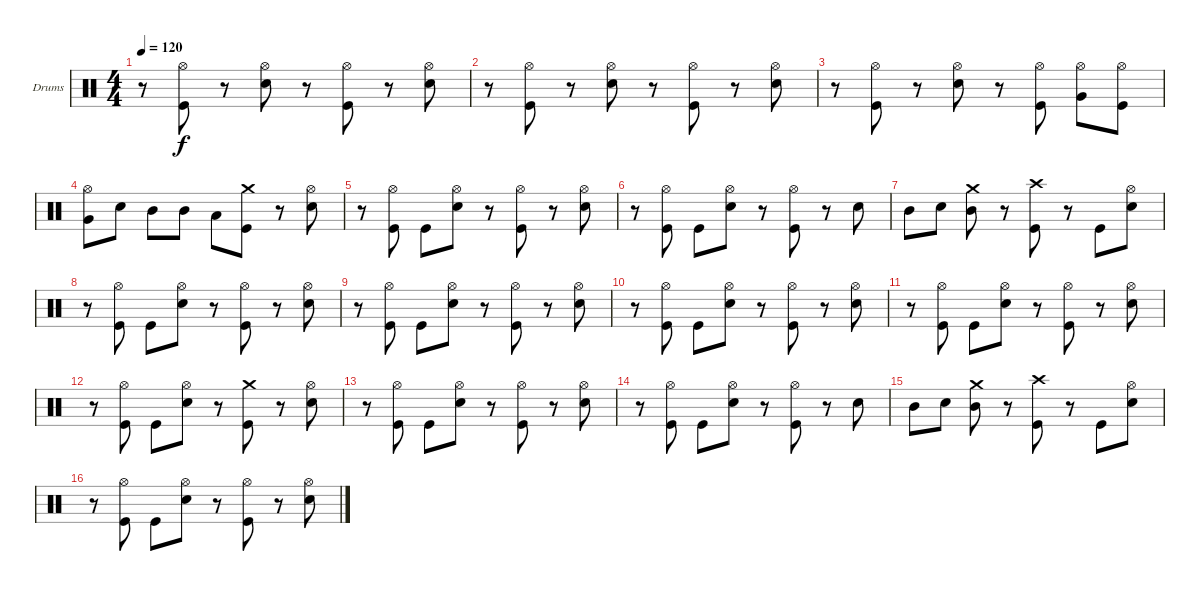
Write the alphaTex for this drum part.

\defaultSystemsLayout 4
\bracketExtendMode groupsimilarinstruments
\firstSystemTrackNameOrientation horizontal
\otherSystemsTrackNameOrientation horizontal
\track ("Drumkit" "Drums") {instrument percussion}
\staff {score}
\articulation defaults
\ts (4 4)
\tempo 120
\clef neutral
\ks c
r.8{dy f} ("Kick (hit)" "Hi-Hat (open)").8 r.8 ("Snare (hit) 2" "Hi-Hat (open)").8 r.8 ("Kick (hit)" "Hi-Hat (open)").8 r.8 ("Snare (hit) 2" "Hi-Hat (open)").8 |
r.8 ("Kick (hit)" "Hi-Hat (open)").8 r.8 ("Snare (hit) 2" "Hi-Hat (open)").8 r.8 ("Kick (hit)" "Hi-Hat (open)").8 r.8 ("Snare (hit) 2" "Hi-Hat (open)").8 |
r.8 ("Kick (hit)" "Hi-Hat (open)").8 r.8 ("Snare (hit) 2" "Hi-Hat (open)").8 r.8 ("Kick (hit)" "Hi-Hat (open)").8 ("Very Low Tom (hit)" "Hi-Hat (open)").8 ("Kick (hit)" "Hi-Hat (open)").8 |
("Very Low Tom (hit)" "Hi-Hat (open)").8 "Snare (hit) 2".8 "Mid Tom (hit)".8 "Mid Tom (hit)".8 "Low Tom (hit)".8 ("Kick (hit)" "Crash medium (hit)").8 r.8 ("Snare (hit) 2" "Hi-Hat (open)").8 |
r.8 ("Kick (hit)" "Hi-Hat (open)").8 "Kick (hit)".8 ("Snare (hit) 2" "Hi-Hat (open)").8 r.8 ("Kick (hit)" "Hi-Hat (open)").8 r.8 ("Snare (hit) 2" "Hi-Hat (open)").8 |
r.8 ("Kick (hit)" "Hi-Hat (open)").8 "Kick (hit)".8 ("Snare (hit) 2" "Hi-Hat (open)").8 r.8 ("Kick (hit)" "Hi-Hat (open)").8 r.8 "Snare (hit) 2".8 |
"Mid Tom (hit)".8 "Snare (hit) 2".8 ("Mid Tom (hit)" "Crash medium (hit)").8 r.8 ("Kick (hit)" "Crash high (hit)").8 r.8 "Kick (hit)".8 ("Snare (hit) 2" "Hi-Hat (open)").8 |
r.8 ("Kick (hit)" "Hi-Hat (open)").8 "Kick (hit)".8 ("Snare (hit) 2" "Hi-Hat (open)").8 r.8 ("Kick (hit)" "Hi-Hat (open)").8 r.8 ("Snare (hit) 2" "Hi-Hat (open)").8 |
r.8 ("Kick (hit)" "Hi-Hat (open)").8 "Kick (hit)".8 ("Snare (hit) 2" "Hi-Hat (open)").8 r.8 ("Kick (hit)" "Hi-Hat (open)").8 r.8 ("Snare (hit) 2" "Hi-Hat (open)").8 |
r.8 ("Kick (hit)" "Hi-Hat (open)").8 "Kick (hit)".8 ("Snare (hit) 2" "Hi-Hat (open)").8 r.8 ("Kick (hit)" "Hi-Hat (open)").8 r.8 ("Snare (hit) 2" "Hi-Hat (open)").8 |
r.8 ("Kick (hit)" "Hi-Hat (open)").8 "Kick (hit)".8 ("Snare (hit) 2" "Hi-Hat (open)").8 r.8 ("Kick (hit)" "Hi-Hat (open)").8 r.8 ("Snare (hit) 2" "Hi-Hat (open)").8 |
r.8 ("Kick (hit)" "Hi-Hat (open)").8 "Kick (hit)".8 ("Snare (hit) 2" "Hi-Hat (open)").8 r.8 ("Kick (hit)" "Crash medium (hit)").8 r.8 ("Snare (hit) 2" "Hi-Hat (open)").8 |
r.8 ("Kick (hit)" "Hi-Hat (open)").8 "Kick (hit)".8 ("Snare (hit) 2" "Hi-Hat (open)").8 r.8 ("Kick (hit)" "Hi-Hat (open)").8 r.8 ("Snare (hit) 2" "Hi-Hat (open)").8 |
r.8 ("Kick (hit)" "Hi-Hat (open)").8 "Kick (hit)".8 ("Snare (hit) 2" "Hi-Hat (open)").8 r.8 ("Kick (hit)" "Hi-Hat (open)").8 r.8 "Snare (hit) 2".8 |
"Mid Tom (hit)".8 "Snare (hit) 2".8 ("Mid Tom (hit)" "Crash medium (hit)").8 r.8 ("Kick (hit)" "Crash high (hit)").8 r.8 "Kick (hit)".8 ("Snare (hit) 2" "Hi-Hat (open)").8 |
r.8 ("Kick (hit)" "Hi-Hat (open)").8 "Kick (hit)".8 ("Snare (hit) 2" "Hi-Hat (open)").8 r.8 ("Kick (hit)" "Hi-Hat (open)").8 r.8 ("Snare (hit) 2" "Hi-Hat (open)").8
